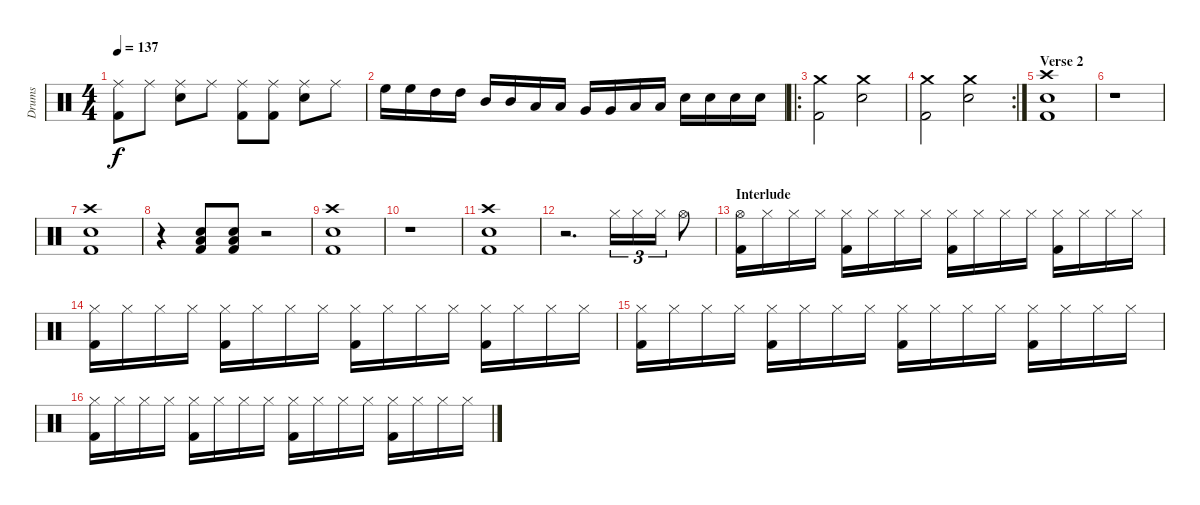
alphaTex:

\track ("Drums" "Drums") {instrument percussion}
\staff {score}
\articulation defaults
\ts (4 4)
\tempo 137
\clef neutral
\ks c
("Ride (middle)" "Kick (hit) 2").8{dy f} "Ride (middle)".8 ("Ride (middle)" "Electric Snare (hit)").8 "Ride (middle)".8 ("Ride (middle)" "Kick (hit) 2").8 ("Ride (middle)" "Kick (hit) 2").8 ("Ride (middle)" "Electric Snare (hit)").8 "Ride (middle)".8 |
"High Floor Tom (hit)".16 "High Floor Tom (hit)".16 "High Tom (hit)".16 "High Tom (hit)".16 "Mid Tom (hit)".16 "Mid Tom (hit)".16 "Low Tom (hit)".16 "Low Tom (hit)".16 "Very Low Tom (hit)".16 "Very Low Tom (hit)".16 "Low Floor Tom (hit)".16 "Low Floor Tom (hit)".16 "Electric Snare (hit)".16 "Electric Snare (hit)".16 "Electric Snare (hit)".16 "Electric Snare (hit)".16 |
\ro
("Crash medium (hit)" "Kick (hit) 2").2 ("Crash medium (hit)" "Electric Snare (hit)").2 |
\rc 2
("Crash medium (hit)" "Kick (hit) 2").2 ("Crash medium (hit)" "Electric Snare (hit)").2 |
\section ("" "Verse 2")
("Crash high (hit)" "Kick (hit) 2" "Electric Snare (hit)").1 |
r.1 |
("Crash high (hit)" "Kick (hit) 2" "Electric Snare (hit)").1 |
r.4 ("Low Floor Tom (hit)" "Kick (hit) 2" "Electric Snare (hit)").8 ("Low Floor Tom (hit)" "Kick (hit) 2" "Electric Snare (hit)").8 r.2 |
("Crash high (hit)" "Kick (hit) 2" "Electric Snare (hit)").1 |
r.1 |
("Crash high (hit)" "Kick (hit) 2" "Electric Snare (hit)").1 |
r.2{d} "Hi-Hat (closed)".16{tu (3 2)} "Hi-Hat (closed)".16{tu (3 2)} "Hi-Hat (closed)".16{tu (3 2)} "Hi-Hat (open)".8 |
\section ("" "Interlude")
("Hi-Hat (open)" "Kick (hit) 2").16 "Hi-Hat (closed)".16 "Hi-Hat (closed)".16 "Hi-Hat (closed)".16 ("Hi-Hat (closed)" "Kick (hit) 2").16 "Hi-Hat (closed)".16 "Hi-Hat (closed)".16 "Hi-Hat (closed)".16 ("Hi-Hat (closed)" "Kick (hit) 2").16 "Hi-Hat (closed)".16 "Hi-Hat (closed)".16 "Hi-Hat (closed)".16 ("Hi-Hat (closed)" "Kick (hit) 2").16 "Hi-Hat (closed)".16 "Hi-Hat (closed)".16 "Hi-Hat (closed)".16 |
("Hi-Hat (closed)" "Kick (hit) 2").16 "Hi-Hat (closed)".16 "Hi-Hat (closed)".16 "Hi-Hat (closed)".16 ("Hi-Hat (closed)" "Kick (hit) 2").16 "Hi-Hat (closed)".16 "Hi-Hat (closed)".16 "Hi-Hat (closed)".16 ("Hi-Hat (closed)" "Kick (hit) 2").16 "Hi-Hat (closed)".16 "Hi-Hat (closed)".16 "Hi-Hat (closed)".16 ("Hi-Hat (closed)" "Kick (hit) 2").16 "Hi-Hat (closed)".16 "Hi-Hat (closed)".16 "Hi-Hat (closed)".16 |
("Hi-Hat (closed)" "Kick (hit) 2").16 "Hi-Hat (closed)".16 "Hi-Hat (closed)".16 "Hi-Hat (closed)".16 ("Hi-Hat (closed)" "Kick (hit) 2").16 "Hi-Hat (closed)".16 "Hi-Hat (closed)".16 "Hi-Hat (closed)".16 ("Hi-Hat (closed)" "Kick (hit) 2").16 "Hi-Hat (closed)".16 "Hi-Hat (closed)".16 "Hi-Hat (closed)".16 ("Hi-Hat (closed)" "Kick (hit) 2").16 "Hi-Hat (closed)".16 "Hi-Hat (closed)".16 "Hi-Hat (closed)".16 |
("Hi-Hat (closed)" "Kick (hit) 2").16 "Hi-Hat (closed)".16 "Hi-Hat (closed)".16 "Hi-Hat (closed)".16 ("Hi-Hat (closed)" "Kick (hit) 2").16 "Hi-Hat (closed)".16 "Hi-Hat (closed)".16 "Hi-Hat (closed)".16 ("Hi-Hat (closed)" "Kick (hit) 2").16 "Hi-Hat (closed)".16 "Hi-Hat (closed)".16 "Hi-Hat (closed)".16 ("Hi-Hat (closed)" "Kick (hit) 2").16 "Hi-Hat (closed)".16 "Hi-Hat (closed)".16 "Hi-Hat (closed)".16
